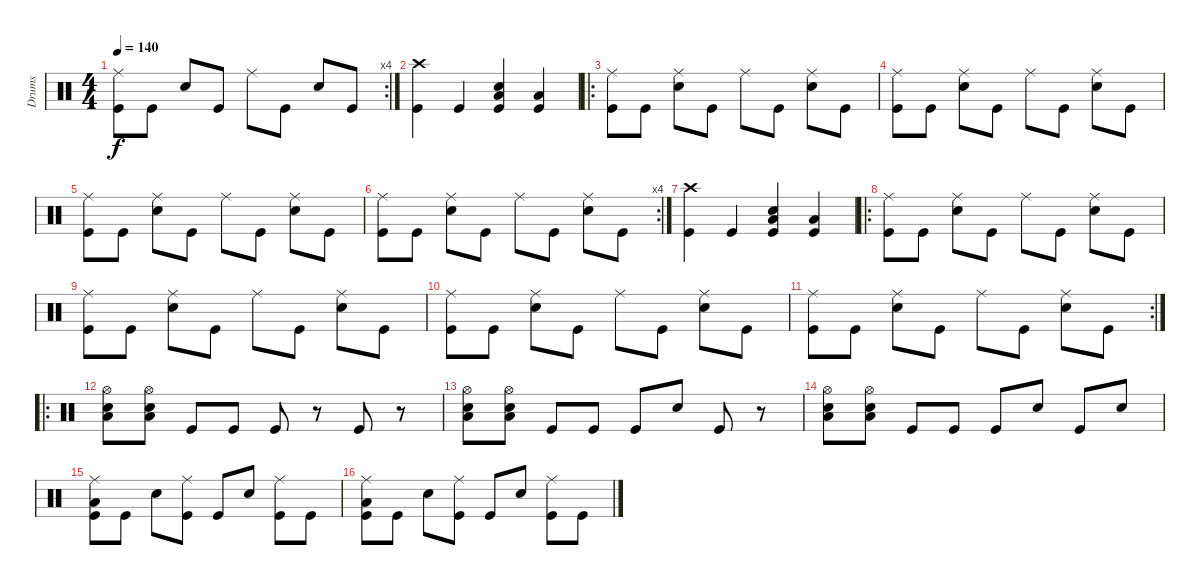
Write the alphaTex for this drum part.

\track ("Drums" "Drums") {instrument percussion}
\staff {score}
\articulation defaults
\rc 4
\ts (4 4)
\tempo 140
\clef neutral
\ks c
("Ride (middle)" "Kick (hit)").8{dy f} "Kick (hit)".8 "Snare (hit) 2".8 "Kick (hit)".8 "Ride (middle)".8 "Kick (hit)".8 "Snare (hit) 2".8 "Kick (hit)".8 |
("Crash high (hit)" "Kick (hit)").4 "Kick (hit)".4 ("Snare (hit) 2" "Low Floor Tom (hit)" "Kick (hit)").4 ("Low Floor Tom (hit)" "Kick (hit)").4 |
\ro
("Ride (middle)" "Kick (hit)").8 "Kick (hit)".8 ("Ride (middle)" "Snare (hit) 2").8 "Kick (hit)".8 "Ride (middle)".8 "Kick (hit)".8 ("Ride (middle)" "Snare (hit) 2").8 "Kick (hit)".8 |
("Ride (middle)" "Kick (hit)").8 "Kick (hit)".8 ("Ride (middle)" "Snare (hit) 2").8 "Kick (hit)".8 "Ride (middle)".8 "Kick (hit)".8 ("Ride (middle)" "Snare (hit) 2").8 "Kick (hit)".8 |
("Ride (middle)" "Kick (hit)").8 "Kick (hit)".8 ("Ride (middle)" "Snare (hit) 2").8 "Kick (hit)".8 "Ride (middle)".8 "Kick (hit)".8 ("Ride (middle)" "Snare (hit) 2").8 "Kick (hit)".8 |
\rc 4
("Ride (middle)" "Kick (hit)").8 "Kick (hit)".8 ("Ride (middle)" "Snare (hit) 2").8 "Kick (hit)".8 "Ride (middle)".8 "Kick (hit)".8 ("Ride (middle)" "Snare (hit) 2").8 "Kick (hit)".8 |
("Crash high (hit)" "Kick (hit)").4 "Kick (hit)".4 ("Snare (hit) 2" "Low Floor Tom (hit)" "Kick (hit)").4 ("Low Floor Tom (hit)" "Kick (hit)").4 |
\ro
("Ride (middle)" "Kick (hit)").8 "Kick (hit)".8 ("Ride (middle)" "Snare (hit) 2").8 "Kick (hit)".8 "Ride (middle)".8 "Kick (hit)".8 ("Ride (middle)" "Snare (hit) 2").8 "Kick (hit)".8 |
("Ride (middle)" "Kick (hit)").8 "Kick (hit)".8 ("Ride (middle)" "Snare (hit) 2").8 "Kick (hit)".8 "Ride (middle)".8 "Kick (hit)".8 ("Ride (middle)" "Snare (hit) 2").8 "Kick (hit)".8 |
("Ride (middle)" "Kick (hit)").8 "Kick (hit)".8 ("Ride (middle)" "Snare (hit) 2").8 "Kick (hit)".8 "Ride (middle)".8 "Kick (hit)".8 ("Ride (middle)" "Snare (hit) 2").8 "Kick (hit)".8 |
\rc 2
("Ride (middle)" "Kick (hit)").8 "Kick (hit)".8 ("Ride (middle)" "Snare (hit) 2").8 "Kick (hit)".8 "Ride (middle)".8 "Kick (hit)".8 ("Ride (middle)" "Snare (hit) 2").8 "Kick (hit)".8 |
\ro
("Hi-Hat (open)" "Snare (hit) 2" "Low Floor Tom (hit)").8 ("Hi-Hat (open)" "Snare (hit) 2" "Low Floor Tom (hit)").8 "Kick (hit)".8 "Kick (hit)".8 "Kick (hit)".8 r.8 "Kick (hit)".8 r.8 |
("Hi-Hat (open)" "Snare (hit) 2" "Low Floor Tom (hit)").8 ("Hi-Hat (open)" "Snare (hit) 2" "Low Floor Tom (hit)").8 "Kick (hit)".8 "Kick (hit)".8 "Kick (hit)".8 "Snare (hit) 2".8 "Kick (hit)".8 r.8 |
("Hi-Hat (open)" "Snare (hit) 2" "Low Floor Tom (hit)").8 ("Hi-Hat (open)" "Snare (hit) 2" "Low Floor Tom (hit)").8 "Kick (hit)".8 "Kick (hit)".8 "Kick (hit)".8 "Snare (hit) 2".8 "Kick (hit)".8 "Snare (hit) 2".8 |
("Ride (middle)" "Low Floor Tom (hit)" "Kick (hit)").8 "Kick (hit)".8 "Snare (hit) 2".8 ("Ride (middle)" "Kick (hit)").8 "Kick (hit)".8 "Snare (hit) 2".8 ("Ride (middle)" "Kick (hit)").8 "Kick (hit)".8 |
("Ride (middle)" "Low Floor Tom (hit)" "Kick (hit)").8 "Kick (hit)".8 "Snare (hit) 2".8 ("Ride (middle)" "Kick (hit)").8 "Kick (hit)".8 "Snare (hit) 2".8 ("Ride (middle)" "Kick (hit)").8 "Kick (hit)".8
